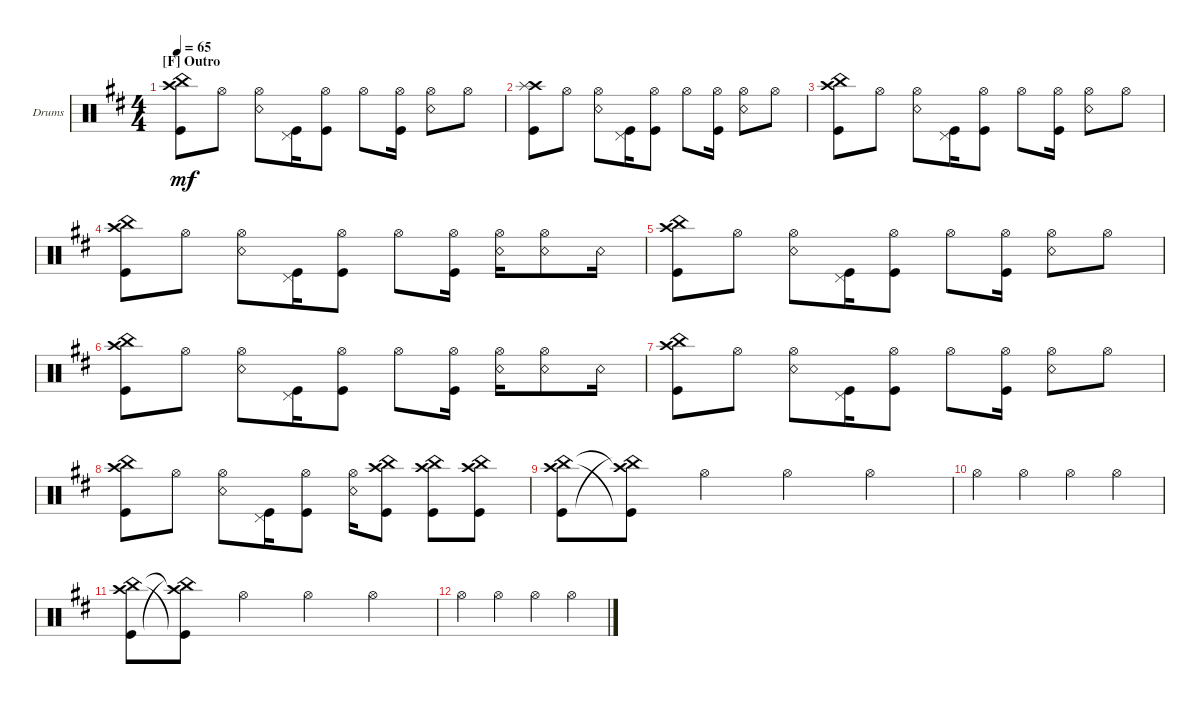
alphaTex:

\defaultSystemsLayout 4
\bracketExtendMode groupsimilarinstruments
\firstSystemTrackNameOrientation horizontal
\otherSystemsTrackNameOrientation horizontal
\track ("Bateria" "Drums") {multiBarRest instrument percussion}
\staff {score}
\articulation defaults
\ts (4 4)
\section ("F" "Outro")
\tempo 65
\clef neutral
\ks d
("Kick (hit)" "Crash high (hit)" "China (hit)").8{dy mf} "Hi-Hat (open)".8 ("Hi-Hat (open)" "Snare (rim shot)").8 ("Kick (hit)" "Pedal Hi-Hat (hit)").16 ("Hi-Hat (open)" "Kick (hit)").8 "Hi-Hat (open)".8 ("Hi-Hat (open)" "Kick (hit)").16 ("Hi-Hat (open)" "Snare (rim shot)").8 "Hi-Hat (open)".8 |
("Kick (hit)" "Crash high (hit)" "Splash (hit)").8 "Hi-Hat (open)".8 ("Hi-Hat (open)" "Snare (rim shot)").8 ("Kick (hit)" "Pedal Hi-Hat (hit)").16 ("Hi-Hat (open)" "Kick (hit)").8 "Hi-Hat (open)".8 ("Hi-Hat (open)" "Kick (hit)").16 ("Hi-Hat (open)" "Snare (rim shot)").8 "Hi-Hat (open)".8 |
("Kick (hit)" "Crash high (hit)" "China (hit)").8 "Hi-Hat (open)".8 ("Hi-Hat (open)" "Snare (rim shot)").8 ("Kick (hit)" "Pedal Hi-Hat (hit)").16 ("Hi-Hat (open)" "Kick (hit)").8 "Hi-Hat (open)".8 ("Hi-Hat (open)" "Kick (hit)").16 ("Hi-Hat (open)" "Snare (rim shot)").8 "Hi-Hat (open)".8 |
("Kick (hit)" "Crash high (hit)" "China (hit)").8 "Hi-Hat (open)".8 ("Hi-Hat (open)" "Snare (rim shot)").8 ("Kick (hit)" "Pedal Hi-Hat (hit)").16 ("Hi-Hat (open)" "Kick (hit)").8 "Hi-Hat (open)".8 ("Hi-Hat (open)" "Kick (hit)").16 ("Hi-Hat (open)" "Snare (rim shot)").16 ("Hi-Hat (open)" "Snare (rim shot)").8 "Snare (rim shot)".16 |
("Kick (hit)" "Crash high (hit)" "China (hit)").8 "Hi-Hat (open)".8 ("Hi-Hat (open)" "Snare (rim shot)").8 ("Kick (hit)" "Pedal Hi-Hat (hit)").16 ("Hi-Hat (open)" "Kick (hit)").8 "Hi-Hat (open)".8 ("Hi-Hat (open)" "Kick (hit)").16 ("Hi-Hat (open)" "Snare (rim shot)").8 "Hi-Hat (open)".8 |
("Kick (hit)" "Crash high (hit)" "China (hit)").8 "Hi-Hat (open)".8 ("Hi-Hat (open)" "Snare (rim shot)").8 ("Kick (hit)" "Pedal Hi-Hat (hit)").16 ("Hi-Hat (open)" "Kick (hit)").8 "Hi-Hat (open)".8 ("Hi-Hat (open)" "Kick (hit)").16 ("Hi-Hat (open)" "Snare (rim shot)").16 ("Hi-Hat (open)" "Snare (rim shot)").8 "Snare (rim shot)".16 |
("Kick (hit)" "Crash high (hit)" "China (hit)").8 "Hi-Hat (open)".8 ("Hi-Hat (open)" "Snare (rim shot)").8 ("Kick (hit)" "Pedal Hi-Hat (hit)").16 ("Hi-Hat (open)" "Kick (hit)").8 "Hi-Hat (open)".8 ("Hi-Hat (open)" "Kick (hit)").16 ("Hi-Hat (open)" "Snare (rim shot)").8 "Hi-Hat (open)".8 |
("Kick (hit)" "Crash high (hit)" "China (hit)").8 "Hi-Hat (open)".8 ("Hi-Hat (open)" "Snare (rim shot)").8 ("Kick (hit)" "Pedal Hi-Hat (hit)").16 ("Hi-Hat (open)" "Kick (hit)").8 ("Hi-Hat (open)" "Snare (rim shot)").16 ("Kick (hit)" "Crash high (hit)" "China (hit)").8 ("Kick (hit)" "Crash high (hit)" "China (hit)").8 ("Kick (hit)" "Crash high (hit)" "China (hit)").8 |
("Kick (hit)" "Crash high (hit)" "China (hit)").8 ("China (hit)"{t} "Kick (hit)"{t} "Crash high (hit)"{t}).8 "Hi-Hat (open)".4 "Hi-Hat (open)".4 "Hi-Hat (open)".4 |
"Hi-Hat (open)".4 "Hi-Hat (open)".4 "Hi-Hat (open)".4 "Hi-Hat (open)".4 |
("Kick (hit)" "Crash high (hit)" "China (hit)").8 ("China (hit)"{t} "Kick (hit)"{t} "Crash high (hit)"{t}).8 "Hi-Hat (open)".4 "Hi-Hat (open)".4 "Hi-Hat (open)".4 |
"Hi-Hat (open)".4 "Hi-Hat (open)".4 "Hi-Hat (open)".4 "Hi-Hat (open)".4
